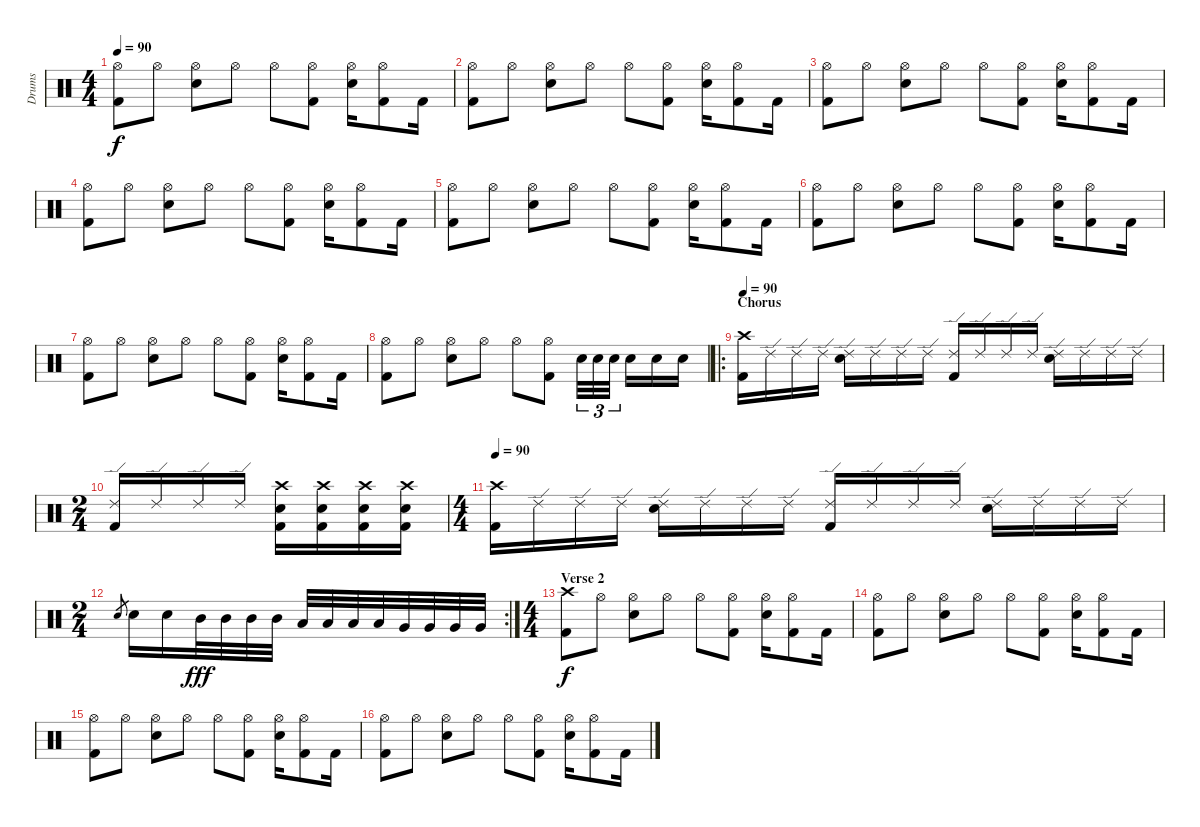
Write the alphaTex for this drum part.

\track ("Drums" "Drums") {instrument percussion}
\staff {score}
\articulation defaults
\ts (4 4)
\tempo 90
\clef neutral
\ks c
("Hi-Hat (open)" "Kick (hit) 2").8{dy f} "Hi-Hat (open)".8 ("Hi-Hat (open)" "Electric Snare (hit)").8 "Hi-Hat (open)".8 "Hi-Hat (open)".8 ("Hi-Hat (open)" "Kick (hit) 2").8 ("Hi-Hat (open)" "Electric Snare (hit)").16 ("Hi-Hat (open)" "Kick (hit) 2").8 "Kick (hit) 2".16 |
("Hi-Hat (open)" "Kick (hit) 2").8 "Hi-Hat (open)".8 ("Hi-Hat (open)" "Electric Snare (hit)").8 "Hi-Hat (open)".8 "Hi-Hat (open)".8 ("Hi-Hat (open)" "Kick (hit) 2").8 ("Hi-Hat (open)" "Electric Snare (hit)").16 ("Hi-Hat (open)" "Kick (hit) 2").8 "Kick (hit) 2".16 |
("Hi-Hat (open)" "Kick (hit) 2").8 "Hi-Hat (open)".8 ("Hi-Hat (open)" "Electric Snare (hit)").8 "Hi-Hat (open)".8 "Hi-Hat (open)".8 ("Hi-Hat (open)" "Kick (hit) 2").8 ("Hi-Hat (open)" "Electric Snare (hit)").16 ("Hi-Hat (open)" "Kick (hit) 2").8 "Kick (hit) 2".16 |
("Hi-Hat (open)" "Kick (hit) 2").8 "Hi-Hat (open)".8 ("Hi-Hat (open)" "Electric Snare (hit)").8 "Hi-Hat (open)".8 "Hi-Hat (open)".8 ("Hi-Hat (open)" "Kick (hit) 2").8 ("Hi-Hat (open)" "Electric Snare (hit)").16 ("Hi-Hat (open)" "Kick (hit) 2").8 "Kick (hit) 2".16 |
("Hi-Hat (open)" "Kick (hit) 2").8 "Hi-Hat (open)".8 ("Hi-Hat (open)" "Electric Snare (hit)").8 "Hi-Hat (open)".8 "Hi-Hat (open)".8 ("Hi-Hat (open)" "Kick (hit) 2").8 ("Hi-Hat (open)" "Electric Snare (hit)").16 ("Hi-Hat (open)" "Kick (hit) 2").8 "Kick (hit) 2".16 |
("Hi-Hat (open)" "Kick (hit) 2").8 "Hi-Hat (open)".8 ("Hi-Hat (open)" "Electric Snare (hit)").8 "Hi-Hat (open)".8 "Hi-Hat (open)".8 ("Hi-Hat (open)" "Kick (hit) 2").8 ("Hi-Hat (open)" "Electric Snare (hit)").16 ("Hi-Hat (open)" "Kick (hit) 2").8 "Kick (hit) 2".16 |
("Hi-Hat (open)" "Kick (hit) 2").8 "Hi-Hat (open)".8 ("Hi-Hat (open)" "Electric Snare (hit)").8 "Hi-Hat (open)".8 "Hi-Hat (open)".8 ("Hi-Hat (open)" "Kick (hit) 2").8 ("Hi-Hat (open)" "Electric Snare (hit)").16 ("Hi-Hat (open)" "Kick (hit) 2").8 "Kick (hit) 2".16 |
("Hi-Hat (open)" "Kick (hit) 2").8 "Hi-Hat (open)".8 ("Hi-Hat (open)" "Electric Snare (hit)").8 "Hi-Hat (open)".8 "Hi-Hat (open)".8 ("Hi-Hat (open)" "Kick (hit) 2").8 "Electric Snare (hit)".32{tu (3 2)} "Electric Snare (hit)".32{tu (3 2)} "Electric Snare (hit)".32{tu (3 2)} "Electric Snare (hit)".16 "Electric Snare (hit)".16 "Electric Snare (hit)".16 |
\ro
\section ("" "Chorus")
\tempo 90
("Crash high (hit)" "Kick (hit) 2").16 "Ride (edge) 2".16 "Ride (edge) 2".16 "Ride (edge) 2".16 ("Ride (edge) 2" "Electric Snare (hit)").16 "Ride (edge) 2".16 "Ride (edge) 2".16 "Ride (edge) 2".16 ("Ride (edge) 2" "Kick (hit) 2").16 "Ride (edge) 2".16 "Ride (edge) 2".16 "Ride (edge) 2".16 ("Ride (edge) 2" "Electric Snare (hit)").16 "Ride (edge) 2".16 "Ride (edge) 2".16 "Ride (edge) 2".16 |
\ts (2 4)
("Ride (edge) 2" "Kick (hit) 2").16 "Ride (edge) 2".16 "Ride (edge) 2".16 "Ride (edge) 2".16 ("Crash high (hit)" "Electric Snare (hit)" "Kick (hit) 2").16 ("Crash high (hit)" "Electric Snare (hit)" "Kick (hit) 2").16 ("Crash high (hit)" "Electric Snare (hit)" "Kick (hit) 2").16 ("Crash high (hit)" "Electric Snare (hit)" "Kick (hit) 2").16 |
\ts (4 4)
\tempo 90
("Crash high (hit)" "Kick (hit) 2").16 "Ride (edge) 2".16 "Ride (edge) 2".16 "Ride (edge) 2".16 ("Ride (edge) 2" "Electric Snare (hit)").16 "Ride (edge) 2".16 "Ride (edge) 2".16 "Ride (edge) 2".16 ("Ride (edge) 2" "Kick (hit) 2").16 "Ride (edge) 2".16 "Ride (edge) 2".16 "Ride (edge) 2".16 ("Ride (edge) 2" "Electric Snare (hit)").16 "Ride (edge) 2".16 "Ride (edge) 2".16 "Ride (edge) 2".16 |
\rc 2
\ts (2 4)
"Electric Snare (hit)".8{gr} "Electric Snare (hit)".16 "Electric Snare (hit)".16 "Mid Tom (hit)".32{dy fff} "Mid Tom (hit)".32 "Mid Tom (hit)".32 "Mid Tom (hit)".32 "Low Tom (hit)".32 "Low Tom (hit)".32 "Low Tom (hit)".32 "Low Tom (hit)".32 "Very Low Tom (hit)".32 "Very Low Tom (hit)".32 "Very Low Tom (hit)".32 "Very Low Tom (hit)".32 |
\ts (4 4)
\section ("" "Verse 2")
("Crash high (hit)" "Kick (hit) 2").8{dy f} "Hi-Hat (open)".8 ("Hi-Hat (open)" "Electric Snare (hit)").8 "Hi-Hat (open)".8 "Hi-Hat (open)".8 ("Hi-Hat (open)" "Kick (hit) 2").8 ("Hi-Hat (open)" "Electric Snare (hit)").16 ("Hi-Hat (open)" "Kick (hit) 2").8 "Kick (hit) 2".16 |
("Hi-Hat (open)" "Kick (hit) 2").8 "Hi-Hat (open)".8 ("Hi-Hat (open)" "Electric Snare (hit)").8 "Hi-Hat (open)".8 "Hi-Hat (open)".8 ("Hi-Hat (open)" "Kick (hit) 2").8 ("Hi-Hat (open)" "Electric Snare (hit)").16 ("Hi-Hat (open)" "Kick (hit) 2").8 "Kick (hit) 2".16 |
("Hi-Hat (open)" "Kick (hit) 2").8 "Hi-Hat (open)".8 ("Hi-Hat (open)" "Electric Snare (hit)").8 "Hi-Hat (open)".8 "Hi-Hat (open)".8 ("Hi-Hat (open)" "Kick (hit) 2").8 ("Hi-Hat (open)" "Electric Snare (hit)").16 ("Hi-Hat (open)" "Kick (hit) 2").8 "Kick (hit) 2".16 |
("Hi-Hat (open)" "Kick (hit) 2").8 "Hi-Hat (open)".8 ("Hi-Hat (open)" "Electric Snare (hit)").8 "Hi-Hat (open)".8 "Hi-Hat (open)".8 ("Hi-Hat (open)" "Kick (hit) 2").8 ("Hi-Hat (open)" "Electric Snare (hit)").16 ("Hi-Hat (open)" "Kick (hit) 2").8 "Kick (hit) 2".16
